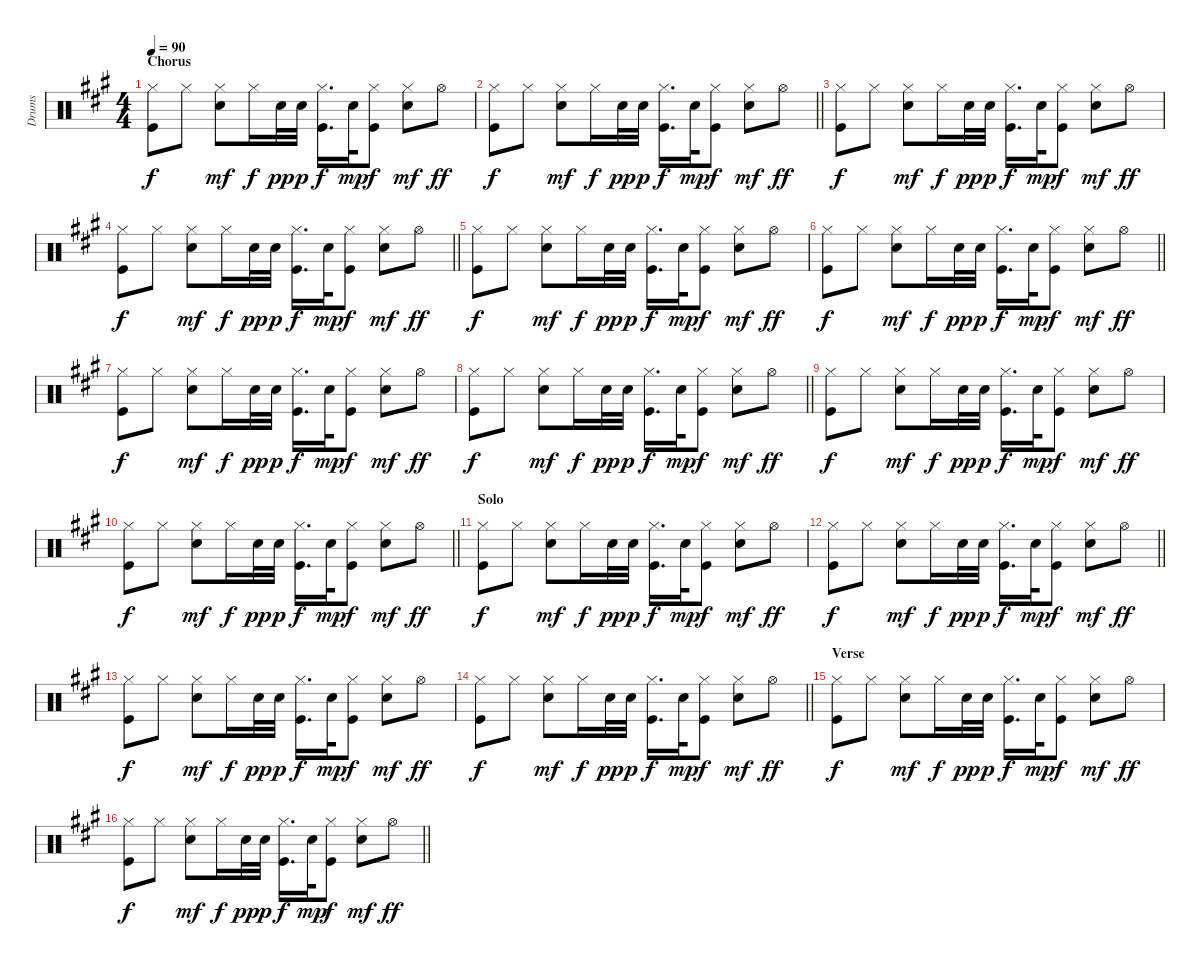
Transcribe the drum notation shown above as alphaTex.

\track ("Drums" "Drums") {instrument percussion}
\staff {score}
\articulation defaults
\ts (4 4)
\section ("" "Chorus")
\tempo 90
\clef neutral
\ks a
("Hi-Hat (closed)" "Kick (hit)").8{dy f} "Hi-Hat (closed)".8 ("Hi-Hat (closed)" "Snare (hit) 2").8{dy mf} "Hi-Hat (closed)".16{dy f} "Snare (hit) 2".32{dy pp} "Snare (hit) 2".32{dy p} ("Hi-Hat (closed)" "Kick (hit)").16{d dy f} "Snare (hit) 2".32{dy mp} ("Hi-Hat (closed)" "Kick (hit)").8{dy f} ("Hi-Hat (closed)" "Snare (hit) 2").8{dy mf} "Hi-Hat (open)".8{dy ff} |
\barLineRight lightlight
("Hi-Hat (closed)" "Kick (hit)").8{dy f} "Hi-Hat (closed)".8 ("Hi-Hat (closed)" "Snare (hit) 2").8{dy mf} "Hi-Hat (closed)".16{dy f} "Snare (hit) 2".32{dy pp} "Snare (hit) 2".32{dy p} ("Hi-Hat (closed)" "Kick (hit)").16{d dy f} "Snare (hit) 2".32{dy mp} ("Hi-Hat (closed)" "Kick (hit)").8{dy f} ("Hi-Hat (closed)" "Snare (hit) 2").8{dy mf} "Hi-Hat (open)".8{dy ff} |
("Hi-Hat (closed)" "Kick (hit)").8{dy f} "Hi-Hat (closed)".8 ("Hi-Hat (closed)" "Snare (hit) 2").8{dy mf} "Hi-Hat (closed)".16{dy f} "Snare (hit) 2".32{dy pp} "Snare (hit) 2".32{dy p} ("Hi-Hat (closed)" "Kick (hit)").16{d dy f} "Snare (hit) 2".32{dy mp} ("Hi-Hat (closed)" "Kick (hit)").8{dy f} ("Hi-Hat (closed)" "Snare (hit) 2").8{dy mf} "Hi-Hat (open)".8{dy ff} |
\barLineRight lightlight
("Hi-Hat (closed)" "Kick (hit)").8{dy f} "Hi-Hat (closed)".8 ("Hi-Hat (closed)" "Snare (hit) 2").8{dy mf} "Hi-Hat (closed)".16{dy f} "Snare (hit) 2".32{dy pp} "Snare (hit) 2".32{dy p} ("Hi-Hat (closed)" "Kick (hit)").16{d dy f} "Snare (hit) 2".32{dy mp} ("Hi-Hat (closed)" "Kick (hit)").8{dy f} ("Hi-Hat (closed)" "Snare (hit) 2").8{dy mf} "Hi-Hat (open)".8{dy ff} |
("Hi-Hat (closed)" "Kick (hit)").8{dy f} "Hi-Hat (closed)".8 ("Hi-Hat (closed)" "Snare (hit) 2").8{dy mf} "Hi-Hat (closed)".16{dy f} "Snare (hit) 2".32{dy pp} "Snare (hit) 2".32{dy p} ("Hi-Hat (closed)" "Kick (hit)").16{d dy f} "Snare (hit) 2".32{dy mp} ("Hi-Hat (closed)" "Kick (hit)").8{dy f} ("Hi-Hat (closed)" "Snare (hit) 2").8{dy mf} "Hi-Hat (open)".8{dy ff} |
\barLineRight lightlight
("Hi-Hat (closed)" "Kick (hit)").8{dy f} "Hi-Hat (closed)".8 ("Hi-Hat (closed)" "Snare (hit) 2").8{dy mf} "Hi-Hat (closed)".16{dy f} "Snare (hit) 2".32{dy pp} "Snare (hit) 2".32{dy p} ("Hi-Hat (closed)" "Kick (hit)").16{d dy f} "Snare (hit) 2".32{dy mp} ("Hi-Hat (closed)" "Kick (hit)").8{dy f} ("Hi-Hat (closed)" "Snare (hit) 2").8{dy mf} "Hi-Hat (open)".8{dy ff} |
("Hi-Hat (closed)" "Kick (hit)").8{dy f} "Hi-Hat (closed)".8 ("Hi-Hat (closed)" "Snare (hit) 2").8{dy mf} "Hi-Hat (closed)".16{dy f} "Snare (hit) 2".32{dy pp} "Snare (hit) 2".32{dy p} ("Hi-Hat (closed)" "Kick (hit)").16{d dy f} "Snare (hit) 2".32{dy mp} ("Hi-Hat (closed)" "Kick (hit)").8{dy f} ("Hi-Hat (closed)" "Snare (hit) 2").8{dy mf} "Hi-Hat (open)".8{dy ff} |
\barLineRight lightlight
("Hi-Hat (closed)" "Kick (hit)").8{dy f} "Hi-Hat (closed)".8 ("Hi-Hat (closed)" "Snare (hit) 2").8{dy mf} "Hi-Hat (closed)".16{dy f} "Snare (hit) 2".32{dy pp} "Snare (hit) 2".32{dy p} ("Hi-Hat (closed)" "Kick (hit)").16{d dy f} "Snare (hit) 2".32{dy mp} ("Hi-Hat (closed)" "Kick (hit)").8{dy f} ("Hi-Hat (closed)" "Snare (hit) 2").8{dy mf} "Hi-Hat (open)".8{dy ff} |
("Hi-Hat (closed)" "Kick (hit)").8{dy f} "Hi-Hat (closed)".8 ("Hi-Hat (closed)" "Snare (hit) 2").8{dy mf} "Hi-Hat (closed)".16{dy f} "Snare (hit) 2".32{dy pp} "Snare (hit) 2".32{dy p} ("Hi-Hat (closed)" "Kick (hit)").16{d dy f} "Snare (hit) 2".32{dy mp} ("Hi-Hat (closed)" "Kick (hit)").8{dy f} ("Hi-Hat (closed)" "Snare (hit) 2").8{dy mf} "Hi-Hat (open)".8{dy ff} |
\barLineRight lightlight
("Hi-Hat (closed)" "Kick (hit)").8{dy f} "Hi-Hat (closed)".8 ("Hi-Hat (closed)" "Snare (hit) 2").8{dy mf} "Hi-Hat (closed)".16{dy f} "Snare (hit) 2".32{dy pp} "Snare (hit) 2".32{dy p} ("Hi-Hat (closed)" "Kick (hit)").16{d dy f} "Snare (hit) 2".32{dy mp} ("Hi-Hat (closed)" "Kick (hit)").8{dy f} ("Hi-Hat (closed)" "Snare (hit) 2").8{dy mf} "Hi-Hat (open)".8{dy ff} |
\section ("" "Solo")
("Hi-Hat (closed)" "Kick (hit)").8{dy f} "Hi-Hat (closed)".8 ("Hi-Hat (closed)" "Snare (hit) 2").8{dy mf} "Hi-Hat (closed)".16{dy f} "Snare (hit) 2".32{dy pp} "Snare (hit) 2".32{dy p} ("Hi-Hat (closed)" "Kick (hit)").16{d dy f} "Snare (hit) 2".32{dy mp} ("Hi-Hat (closed)" "Kick (hit)").8{dy f} ("Hi-Hat (closed)" "Snare (hit) 2").8{dy mf} "Hi-Hat (open)".8{dy ff} |
\barLineRight lightlight
("Hi-Hat (closed)" "Kick (hit)").8{dy f} "Hi-Hat (closed)".8 ("Hi-Hat (closed)" "Snare (hit) 2").8{dy mf} "Hi-Hat (closed)".16{dy f} "Snare (hit) 2".32{dy pp} "Snare (hit) 2".32{dy p} ("Hi-Hat (closed)" "Kick (hit)").16{d dy f} "Snare (hit) 2".32{dy mp} ("Hi-Hat (closed)" "Kick (hit)").8{dy f} ("Hi-Hat (closed)" "Snare (hit) 2").8{dy mf} "Hi-Hat (open)".8{dy ff} |
("Hi-Hat (closed)" "Kick (hit)").8{dy f} "Hi-Hat (closed)".8 ("Hi-Hat (closed)" "Snare (hit) 2").8{dy mf} "Hi-Hat (closed)".16{dy f} "Snare (hit) 2".32{dy pp} "Snare (hit) 2".32{dy p} ("Hi-Hat (closed)" "Kick (hit)").16{d dy f} "Snare (hit) 2".32{dy mp} ("Hi-Hat (closed)" "Kick (hit)").8{dy f} ("Hi-Hat (closed)" "Snare (hit) 2").8{dy mf} "Hi-Hat (open)".8{dy ff} |
\barLineRight lightlight
("Hi-Hat (closed)" "Kick (hit)").8{dy f} "Hi-Hat (closed)".8 ("Hi-Hat (closed)" "Snare (hit) 2").8{dy mf} "Hi-Hat (closed)".16{dy f} "Snare (hit) 2".32{dy pp} "Snare (hit) 2".32{dy p} ("Hi-Hat (closed)" "Kick (hit)").16{d dy f} "Snare (hit) 2".32{dy mp} ("Hi-Hat (closed)" "Kick (hit)").8{dy f} ("Hi-Hat (closed)" "Snare (hit) 2").8{dy mf} "Hi-Hat (open)".8{dy ff} |
\section ("" "Verse")
("Hi-Hat (closed)" "Kick (hit)").8{dy f} "Hi-Hat (closed)".8 ("Hi-Hat (closed)" "Snare (hit) 2").8{dy mf} "Hi-Hat (closed)".16{dy f} "Snare (hit) 2".32{dy pp} "Snare (hit) 2".32{dy p} ("Hi-Hat (closed)" "Kick (hit)").16{d dy f} "Snare (hit) 2".32{dy mp} ("Hi-Hat (closed)" "Kick (hit)").8{dy f} ("Hi-Hat (closed)" "Snare (hit) 2").8{dy mf} "Hi-Hat (open)".8{dy ff} |
\barLineRight lightlight
("Hi-Hat (closed)" "Kick (hit)").8{dy f} "Hi-Hat (closed)".8 ("Hi-Hat (closed)" "Snare (hit) 2").8{dy mf} "Hi-Hat (closed)".16{dy f} "Snare (hit) 2".32{dy pp} "Snare (hit) 2".32{dy p} ("Hi-Hat (closed)" "Kick (hit)").16{d dy f} "Snare (hit) 2".32{dy mp} ("Hi-Hat (closed)" "Kick (hit)").8{dy f} ("Hi-Hat (closed)" "Snare (hit) 2").8{dy mf} "Hi-Hat (open)".8{dy ff}
